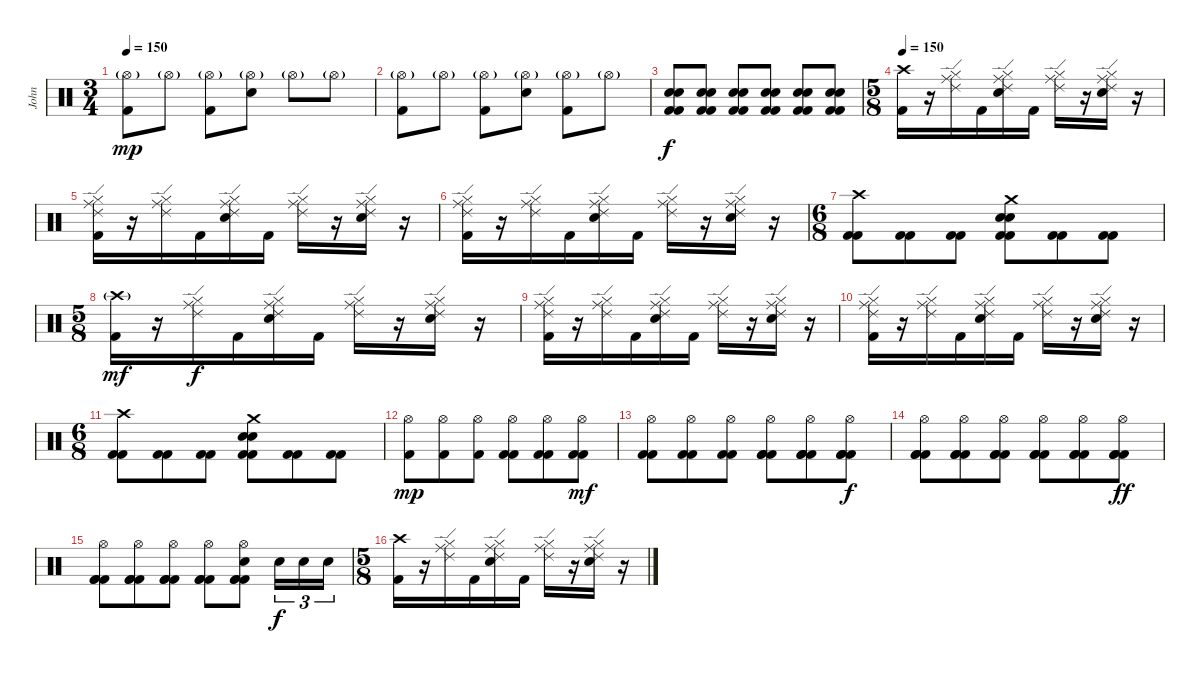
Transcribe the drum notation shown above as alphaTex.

\track ("John" "John") {instrument percussion}
\staff {score}
\articulation defaults
\ts (3 4)
\tempo 150
\clef neutral
\ks c
("Hi-Hat (open)"{g} "Kick (hit) 2").8{dy mp} "Hi-Hat (open)"{g}.8 ("Hi-Hat (open)"{g} "Kick (hit) 2").8 ("Hi-Hat (open)"{g} "Electric Snare (hit)").8 "Hi-Hat (open)"{g}.8 "Hi-Hat (open)"{g}.8 |
("Hi-Hat (open)"{g} "Kick (hit) 2").8 "Hi-Hat (open)"{g}.8 ("Hi-Hat (open)"{g} "Kick (hit) 2").8 ("Hi-Hat (open)"{g} "Electric Snare (hit)").8 ("Hi-Hat (open)"{g} "Kick (hit) 2").8 "Hi-Hat (open)"{g}.8 |
("Electric Snare (hit)" "Electric Snare (hit)" "Kick (hit) 2" "Kick (hit) 2").8{dy f} ("Electric Snare (hit)" "Electric Snare (hit)" "Kick (hit) 2" "Kick (hit) 2").8 ("Electric Snare (hit)" "Electric Snare (hit)" "Kick (hit) 2" "Kick (hit) 2").8 ("Electric Snare (hit)" "Electric Snare (hit)" "Kick (hit) 2" "Kick (hit) 2").8 ("Electric Snare (hit)" "Electric Snare (hit)" "Kick (hit) 2" "Kick (hit) 2").8 ("Electric Snare (hit)" "Electric Snare (hit)" "Kick (hit) 2" "Kick (hit) 2").8 |
\ts (5 8)
\tempo 150
("Crash high (hit)" "Kick (hit) 2").16 r.16 ("Ride (middle)" "Ride (edge) 2" "Hi-Hat (closed)").16 "Kick (hit) 2".16 ("Ride (middle)" "Electric Snare (hit)" "Ride (edge) 2" "Hi-Hat (closed)").16 "Kick (hit) 2".16 ("Ride (middle)" "Ride (edge) 2" "Hi-Hat (closed)").16 r.16 ("Ride (middle)" "Electric Snare (hit)" "Ride (edge) 2" "Hi-Hat (closed)").16 r.16 |
("Ride (middle)" "Kick (hit) 2" "Ride (edge) 2" "Hi-Hat (closed)").16 r.16 ("Ride (middle)" "Ride (edge) 2" "Hi-Hat (closed)").16 "Kick (hit) 2".16 ("Ride (middle)" "Electric Snare (hit)" "Ride (edge) 2" "Hi-Hat (closed)").16 "Kick (hit) 2".16 ("Ride (middle)" "Ride (edge) 2" "Hi-Hat (closed)").16 r.16 ("Ride (middle)" "Electric Snare (hit)" "Ride (edge) 2" "Hi-Hat (closed)").16 r.16 |
("Ride (middle)" "Kick (hit) 2" "Ride (edge) 2" "Hi-Hat (closed)").16 r.16 ("Ride (middle)" "Ride (edge) 2" "Hi-Hat (closed)").16 "Kick (hit) 2".16 ("Ride (middle)" "Electric Snare (hit)" "Ride (edge) 2" "Hi-Hat (closed)").16 "Kick (hit) 2".16 ("Ride (middle)" "Ride (edge) 2" "Hi-Hat (closed)").16 r.16 ("Ride (middle)" "Electric Snare (hit)" "Ride (edge) 2" "Hi-Hat (closed)").16 r.16 |
\ts (6 8)
("Crash high (hit)" "Kick (hit) 2" "Kick (hit) 2").8 ("Kick (hit) 2" "Kick (hit) 2").8 ("Kick (hit) 2" "Kick (hit) 2").8 ("Crash medium (hit)" "Electric Snare (hit)" "Electric Snare (hit)" "Kick (hit) 2" "Kick (hit) 2").8 ("Kick (hit) 2" "Kick (hit) 2").8 ("Kick (hit) 2" "Kick (hit) 2").8 |
\ts (5 8)
("Crash high (hit)"{g} "Kick (hit) 2").16{dy mf} r.16 ("Ride (middle)" "Ride (edge) 2" "Hi-Hat (closed)").16{dy f} "Kick (hit) 2".16 ("Ride (middle)" "Electric Snare (hit)" "Ride (edge) 2" "Hi-Hat (closed)").16 "Kick (hit) 2".16 ("Ride (middle)" "Ride (edge) 2" "Hi-Hat (closed)").16 r.16 ("Ride (middle)" "Electric Snare (hit)" "Ride (edge) 2" "Hi-Hat (closed)").16 r.16 |
("Ride (middle)" "Kick (hit) 2" "Ride (edge) 2" "Hi-Hat (closed)").16 r.16 ("Ride (middle)" "Ride (edge) 2" "Hi-Hat (closed)").16 "Kick (hit) 2".16 ("Ride (middle)" "Electric Snare (hit)" "Ride (edge) 2" "Hi-Hat (closed)").16 "Kick (hit) 2".16 ("Ride (middle)" "Ride (edge) 2" "Hi-Hat (closed)").16 r.16 ("Ride (middle)" "Electric Snare (hit)" "Ride (edge) 2" "Hi-Hat (closed)").16 r.16 |
("Ride (middle)" "Kick (hit) 2" "Ride (edge) 2" "Hi-Hat (closed)").16 r.16 ("Ride (middle)" "Ride (edge) 2" "Hi-Hat (closed)").16 "Kick (hit) 2".16 ("Ride (middle)" "Electric Snare (hit)" "Ride (edge) 2" "Hi-Hat (closed)").16 "Kick (hit) 2".16 ("Ride (middle)" "Ride (edge) 2" "Hi-Hat (closed)").16 r.16 ("Ride (middle)" "Electric Snare (hit)" "Ride (edge) 2" "Hi-Hat (closed)").16 r.16 |
\ts (6 8)
("Crash high (hit)" "Kick (hit) 2" "Kick (hit) 2").8 ("Kick (hit) 2" "Kick (hit) 2").8 ("Kick (hit) 2" "Kick (hit) 2").8 ("Crash medium (hit)" "Electric Snare (hit)" "Electric Snare (hit)" "Kick (hit) 2" "Kick (hit) 2").8 ("Kick (hit) 2" "Kick (hit) 2").8 ("Kick (hit) 2" "Kick (hit) 2").8 |
("Hi-Hat (open)" "Kick (hit) 2").8{dy mp} ("Hi-Hat (open)" "Kick (hit) 2").8 ("Hi-Hat (open)" "Kick (hit) 2").8 ("Hi-Hat (open)" "Kick (hit) 2" "Kick (hit) 2").8 ("Hi-Hat (open)" "Kick (hit) 2" "Kick (hit) 2").8 ("Hi-Hat (open)" "Kick (hit) 2" "Kick (hit) 2").8{dy mf} |
("Hi-Hat (open)" "Kick (hit) 2" "Kick (hit) 2").8 ("Hi-Hat (open)" "Kick (hit) 2" "Kick (hit) 2").8 ("Hi-Hat (open)" "Kick (hit) 2" "Kick (hit) 2").8 ("Hi-Hat (open)" "Kick (hit) 2" "Kick (hit) 2" "Kick (hit) 2").8 ("Hi-Hat (open)" "Kick (hit) 2" "Kick (hit) 2" "Kick (hit) 2").8 ("Hi-Hat (open)" "Kick (hit) 2" "Kick (hit) 2" "Kick (hit) 2").8{dy f} |
("Hi-Hat (open)" "Kick (hit) 2" "Kick (hit) 2" "Kick (hit) 2").8 ("Hi-Hat (open)" "Kick (hit) 2" "Kick (hit) 2" "Kick (hit) 2").8 ("Hi-Hat (open)" "Kick (hit) 2" "Kick (hit) 2" "Kick (hit) 2").8 ("Hi-Hat (open)" "Kick (hit) 2" "Kick (hit) 2" "Kick (hit) 2").8 ("Hi-Hat (open)" "Kick (hit) 2" "Kick (hit) 2" "Kick (hit) 2").8 ("Hi-Hat (open)" "Kick (hit) 2" "Kick (hit) 2" "Kick (hit) 2").8{dy ff} |
("Hi-Hat (open)" "Kick (hit) 2" "Kick (hit) 2" "Kick (hit) 2").8 ("Hi-Hat (open)" "Kick (hit) 2" "Kick (hit) 2" "Kick (hit) 2").8 ("Hi-Hat (open)" "Kick (hit) 2" "Kick (hit) 2" "Kick (hit) 2").8 ("Hi-Hat (open)" "Kick (hit) 2" "Kick (hit) 2" "Kick (hit) 2").8 ("Hi-Hat (open)" "Electric Snare (hit)" "Kick (hit) 2" "Kick (hit) 2" "Kick (hit) 2").8 "Electric Snare (hit)".16{tu (3 2) dy f} "Electric Snare (hit)".16{tu (3 2)} "Electric Snare (hit)".16{tu (3 2)} |
\ts (5 8)
("Crash high (hit)" "Kick (hit) 2").16 r.16 ("Ride (middle)" "Ride (edge) 2" "Hi-Hat (closed)").16 "Kick (hit) 2".16 ("Ride (middle)" "Electric Snare (hit)" "Ride (edge) 2" "Hi-Hat (closed)").16 "Kick (hit) 2".16 ("Ride (middle)" "Ride (edge) 2" "Hi-Hat (closed)").16 r.16 ("Ride (middle)" "Electric Snare (hit)" "Ride (edge) 2" "Hi-Hat (closed)").16 r.16
